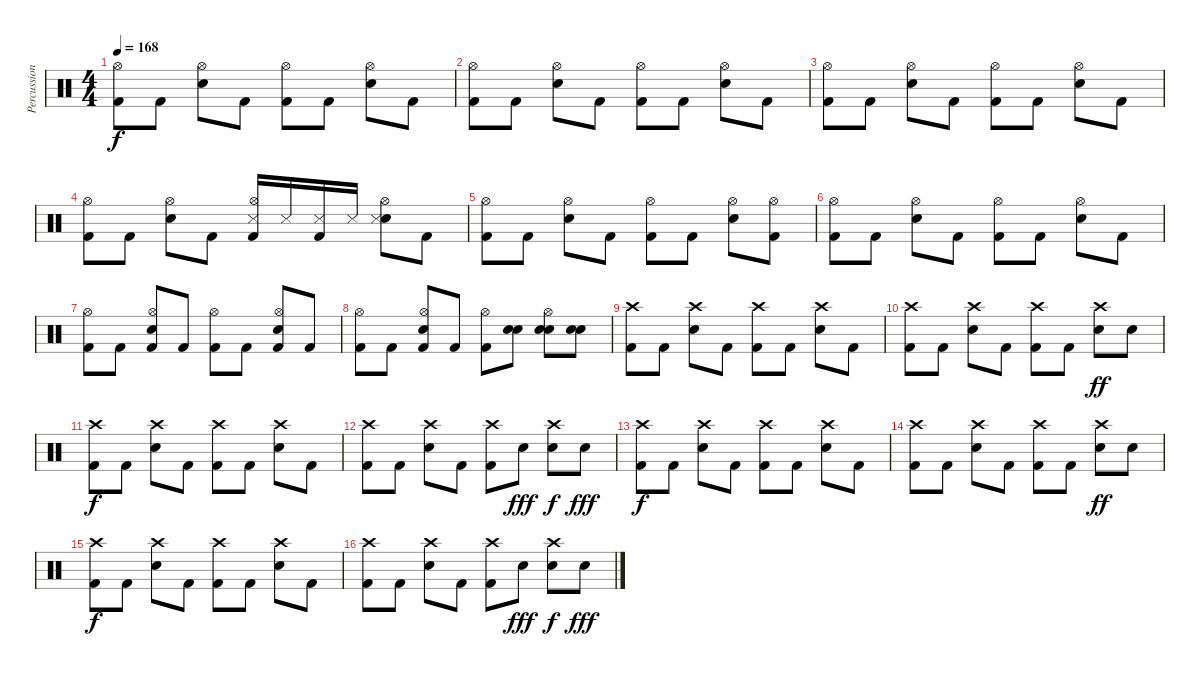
\track ("Percussion" "Percussion") {instrument percussion}
\staff {score}
\articulation defaults
\ts (4 4)
\tempo 168
\clef neutral
\ks c
("Kick (hit) 2" "Hi-Hat (open)").8{dy f} "Kick (hit) 2".8 ("Snare (hit) 2" "Hi-Hat (open)").8 "Kick (hit) 2".8 ("Kick (hit) 2" "Hi-Hat (open)").8 "Kick (hit) 2".8 ("Hi-Hat (open)" "Snare (hit) 2").8 "Kick (hit) 2".8 |
("Kick (hit) 2" "Hi-Hat (open)").8 "Kick (hit) 2".8 ("Snare (hit) 2" "Hi-Hat (open)").8 "Kick (hit) 2".8 ("Kick (hit) 2" "Hi-Hat (open)").8 "Kick (hit) 2".8 ("Hi-Hat (open)" "Snare (hit) 2").8 "Kick (hit) 2".8 |
("Kick (hit) 2" "Hi-Hat (open)").8 "Kick (hit) 2".8 ("Snare (hit) 2" "Hi-Hat (open)").8 "Kick (hit) 2".8 ("Kick (hit) 2" "Hi-Hat (open)").8 "Kick (hit) 2".8 ("Hi-Hat (open)" "Snare (hit) 2").8 "Kick (hit) 2".8 |
("Kick (hit) 2" "Hi-Hat (open)").8 "Kick (hit) 2".8 ("Snare (hit) 2" "Hi-Hat (open)").8 "Kick (hit) 2".8 ("Kick (hit) 2" "Hi-Hat (open)" "Snare (side stick) 3").16 "Snare (side stick) 3".16 ("Kick (hit) 2" "Snare (side stick) 3").16 "Snare (side stick) 3".16 ("Hi-Hat (open)" "Snare (hit) 2" "Snare (side stick) 3").8 "Kick (hit) 2".8 |
("Kick (hit) 2" "Hi-Hat (open)").8 "Kick (hit) 2".8 ("Snare (hit) 2" "Hi-Hat (open)").8 "Kick (hit) 2".8 ("Kick (hit) 2" "Hi-Hat (open)").8 "Kick (hit) 2".8 ("Hi-Hat (open)" "Snare (hit) 2").8 ("Kick (hit) 2" "Hi-Hat (open)").8 |
("Kick (hit) 2" "Hi-Hat (open)").8 "Kick (hit) 2".8 ("Snare (hit) 2" "Hi-Hat (open)").8 "Kick (hit) 2".8 ("Kick (hit) 2" "Hi-Hat (open)").8 "Kick (hit) 2".8 ("Hi-Hat (open)" "Snare (hit) 2").8 "Kick (hit) 2".8 |
("Kick (hit) 2" "Hi-Hat (open)").8 "Kick (hit) 2".8 ("Snare (hit) 2" "Hi-Hat (open)" "Kick (hit) 2").8 "Kick (hit) 2".8 ("Kick (hit) 2" "Hi-Hat (open)").8 "Kick (hit) 2".8 ("Hi-Hat (open)" "Snare (hit) 2" "Kick (hit) 2").8 "Kick (hit) 2".8 |
("Kick (hit) 2" "Hi-Hat (open)").8 "Kick (hit) 2".8 ("Snare (hit) 2" "Hi-Hat (open)" "Kick (hit) 2").8 "Kick (hit) 2".8 ("Kick (hit) 2" "Hi-Hat (open)").8 ("Snare (hit) 2" "Hand Clap (hit)").8 ("Hi-Hat (open)" "Snare (hit) 2" "Hand Clap (hit)").8 ("Snare (hit) 2" "Hand Clap (hit)").8 |
("Kick (hit) 2" "Crash high (hit)").8 "Kick (hit) 2".8 ("Snare (hit) 2" "Crash high (hit)").8 "Kick (hit) 2".8 ("Kick (hit) 2" "Crash high (hit)").8 "Kick (hit) 2".8 ("Snare (hit) 2" "Crash high (hit)").8 "Kick (hit) 2".8 |
("Kick (hit) 2" "Crash high (hit)").8 "Kick (hit) 2".8 ("Snare (hit) 2" "Crash high (hit)").8 "Kick (hit) 2".8 ("Kick (hit) 2" "Crash high (hit)").8 "Kick (hit) 2".8 ("Snare (hit) 2" "Crash high (hit)").8{dy ff} "Snare (hit) 2".8 |
("Kick (hit) 2" "Crash high (hit)").8{dy f} "Kick (hit) 2".8 ("Snare (hit) 2" "Crash high (hit)").8 "Kick (hit) 2".8 ("Kick (hit) 2" "Crash high (hit)").8 "Kick (hit) 2".8 ("Snare (hit) 2" "Crash high (hit)").8 "Kick (hit) 2".8 |
("Kick (hit) 2" "Crash high (hit)").8 "Kick (hit) 2".8 ("Snare (hit) 2" "Crash high (hit)").8 "Kick (hit) 2".8 ("Kick (hit) 2" "Crash high (hit)").8 "Snare (hit) 2".8{dy fff} ("Snare (hit) 2" "Crash high (hit)").8{dy f} "Snare (hit) 2".8{dy fff} |
("Kick (hit) 2" "Crash high (hit)").8{dy f} "Kick (hit) 2".8 ("Snare (hit) 2" "Crash high (hit)").8 "Kick (hit) 2".8 ("Kick (hit) 2" "Crash high (hit)").8 "Kick (hit) 2".8 ("Snare (hit) 2" "Crash high (hit)").8 "Kick (hit) 2".8 |
("Kick (hit) 2" "Crash high (hit)").8 "Kick (hit) 2".8 ("Snare (hit) 2" "Crash high (hit)").8 "Kick (hit) 2".8 ("Kick (hit) 2" "Crash high (hit)").8 "Kick (hit) 2".8 ("Snare (hit) 2" "Crash high (hit)").8{dy ff} "Snare (hit) 2".8 |
("Kick (hit) 2" "Crash high (hit)").8{dy f} "Kick (hit) 2".8 ("Snare (hit) 2" "Crash high (hit)").8 "Kick (hit) 2".8 ("Kick (hit) 2" "Crash high (hit)").8 "Kick (hit) 2".8 ("Snare (hit) 2" "Crash high (hit)").8 "Kick (hit) 2".8 |
("Kick (hit) 2" "Crash high (hit)").8 "Kick (hit) 2".8 ("Snare (hit) 2" "Crash high (hit)").8 "Kick (hit) 2".8 ("Kick (hit) 2" "Crash high (hit)").8 "Snare (hit) 2".8{dy fff} ("Snare (hit) 2" "Crash high (hit)").8{dy f} "Snare (hit) 2".8{dy fff}
